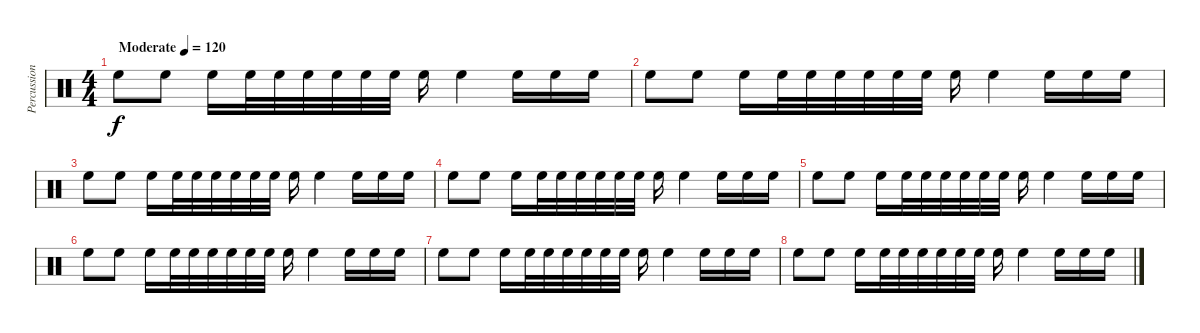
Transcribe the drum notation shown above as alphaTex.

\track ("Percussion" "Percussion") {instrument percussion}
\staff {score}
\articulation defaults
\ts (4 4)
\tempo (120 "Moderate")
\clef neutral
\ks c "High Floor Tom (hit)".8{dy f} "High Floor Tom (hit)".8 "High Floor Tom (hit)".16 "High Floor Tom (hit)".32 "High Floor Tom (hit)".32 "High Floor Tom (hit)".32 "High Floor Tom (hit)".32 "High Floor Tom (hit)".32 "High Floor Tom (hit)".32 "High Floor Tom (hit)".16 "High Floor Tom (hit)".4 "High Floor Tom (hit)".16 "High Floor Tom (hit)".16 "High Floor Tom (hit)".16
|
"High Floor Tom (hit)".8 "High Floor Tom (hit)".8 "High Floor Tom (hit)".16 "High Floor Tom (hit)".32 "High Floor Tom (hit)".32 "High Floor Tom (hit)".32 "High Floor Tom (hit)".32 "High Floor Tom (hit)".32 "High Floor Tom (hit)".32 "High Floor Tom (hit)".16 "High Floor Tom (hit)".4 "High Floor Tom (hit)".16 "High Floor Tom (hit)".16 "High Floor Tom (hit)".16 |
"High Floor Tom (hit)".8 "High Floor Tom (hit)".8 "High Floor Tom (hit)".16 "High Floor Tom (hit)".32 "High Floor Tom (hit)".32 "High Floor Tom (hit)".32 "High Floor Tom (hit)".32 "High Floor Tom (hit)".32 "High Floor Tom (hit)".32 "High Floor Tom (hit)".16 "High Floor Tom (hit)".4 "High Floor Tom (hit)".16 "High Floor Tom (hit)".16 "High Floor Tom (hit)".16 |
"High Floor Tom (hit)".8 "High Floor Tom (hit)".8 "High Floor Tom (hit)".16 "High Floor Tom (hit)".32 "High Floor Tom (hit)".32 "High Floor Tom (hit)".32 "High Floor Tom (hit)".32 "High Floor Tom (hit)".32 "High Floor Tom (hit)".32 "High Floor Tom (hit)".16 "High Floor Tom (hit)".4 "High Floor Tom (hit)".16 "High Floor Tom (hit)".16 "High Floor Tom (hit)".16 |
"High Floor Tom (hit)".8 "High Floor Tom (hit)".8 "High Floor Tom (hit)".16 "High Floor Tom (hit)".32 "High Floor Tom (hit)".32 "High Floor Tom (hit)".32 "High Floor Tom (hit)".32 "High Floor Tom (hit)".32 "High Floor Tom (hit)".32 "High Floor Tom (hit)".16 "High Floor Tom (hit)".4 "High Floor Tom (hit)".16 "High Floor Tom (hit)".16 "High Floor Tom (hit)".16 |
"High Floor Tom (hit)".8 "High Floor Tom (hit)".8 "High Floor Tom (hit)".16 "High Floor Tom (hit)".32 "High Floor Tom (hit)".32 "High Floor Tom (hit)".32 "High Floor Tom (hit)".32 "High Floor Tom (hit)".32 "High Floor Tom (hit)".32 "High Floor Tom (hit)".16 "High Floor Tom (hit)".4 "High Floor Tom (hit)".16 "High Floor Tom (hit)".16 "High Floor Tom (hit)".16 |
"High Floor Tom (hit)".8 "High Floor Tom (hit)".8 "High Floor Tom (hit)".16 "High Floor Tom (hit)".32 "High Floor Tom (hit)".32 "High Floor Tom (hit)".32 "High Floor Tom (hit)".32 "High Floor Tom (hit)".32 "High Floor Tom (hit)".32 "High Floor Tom (hit)".16 "High Floor Tom (hit)".4 "High Floor Tom (hit)".16 "High Floor Tom (hit)".16 "High Floor Tom (hit)".16 |
"High Floor Tom (hit)".8 "High Floor Tom (hit)".8 "High Floor Tom (hit)".16 "High Floor Tom (hit)".32 "High Floor Tom (hit)".32 "High Floor Tom (hit)".32 "High Floor Tom (hit)".32 "High Floor Tom (hit)".32 "High Floor Tom (hit)".32 "High Floor Tom (hit)".16 "High Floor Tom (hit)".4 "High Floor Tom (hit)".16 "High Floor Tom (hit)".16 "High Floor Tom (hit)".16
